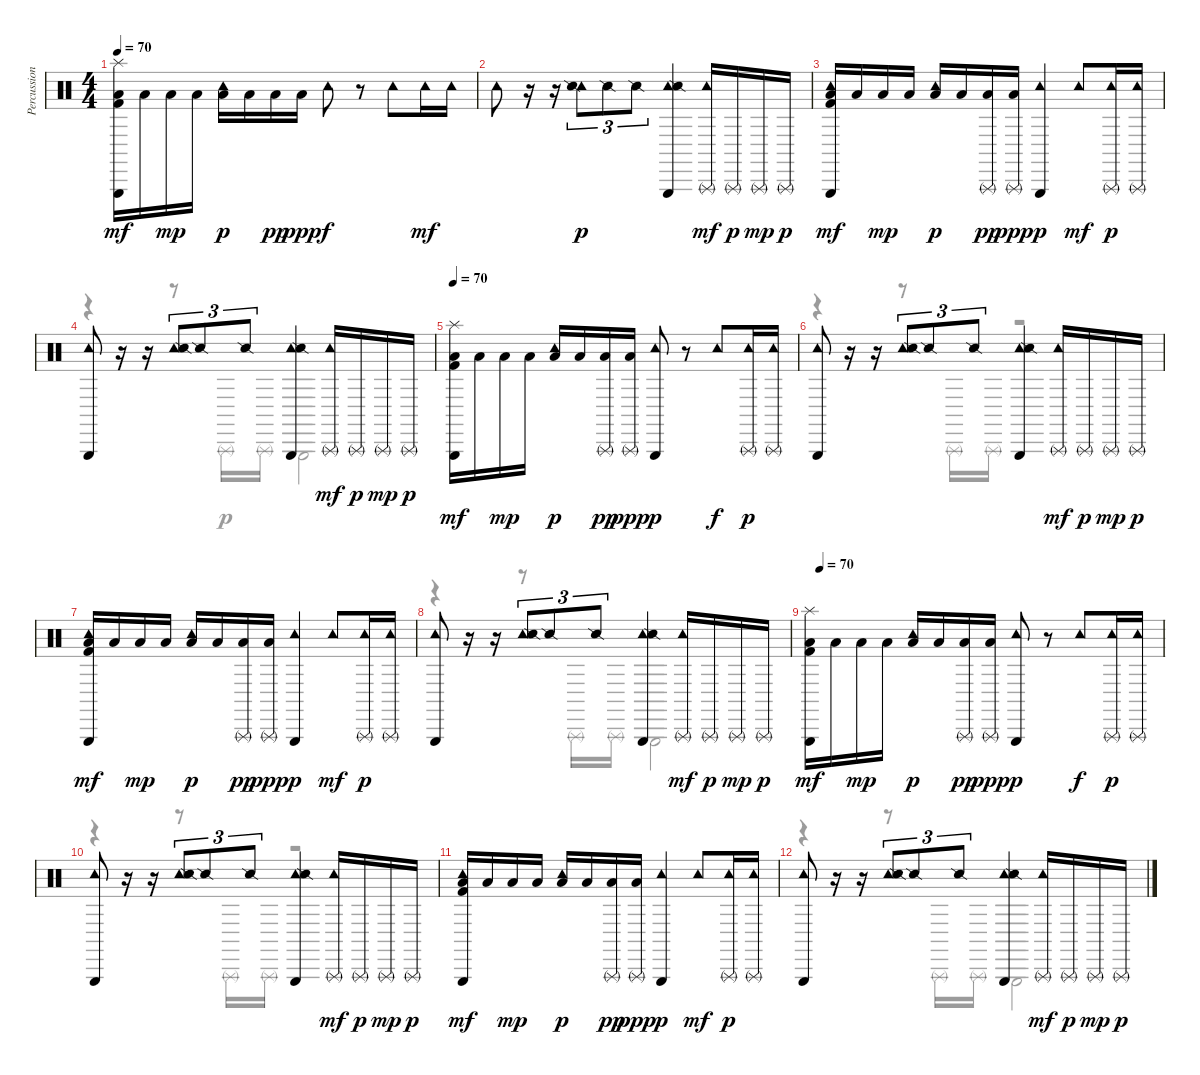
\track ("Percussion" "Percussion") {instrument percussion}
\staff {score}
\articulation defaults
\voice
\ts (4 4)
\tempo 70
\clef neutral
\ks c
("Splash (hit)" "Triangle (hit)" "Low Floor Tom (hit)" "Kick (hit) 2").16{dy mf} "Low Floor Tom (hit)".16 "Low Floor Tom (hit)".16{dy mp} "Low Floor Tom (hit)".16 ("Tambourine (hit)" "Low Floor Tom (hit)").16{dy p} "Low Floor Tom (hit)".16 "Low Floor Tom (hit)".16{dy pp} "Low Floor Tom (hit)".16{dy ppp} "Tambourine (hit)".8{dy f} r.8 "Tambourine (hit)".8 "Tambourine (hit)".16{dy mf} "Tambourine (hit)".16 |
"Tambourine (hit)".8 r.16 r.16 ("Tambourine (hit)" "Snare (side stick) 2").8{tu (3 2) dy p} "Snare (side stick) 2".8{tu (3 2)} "Snare (side stick) 2".8{tu (3 2)} ("Tambourine (hit)" "Triangle (hit)" "Snare (side stick) 2").4 ("Tambourine (hit)" "Triangle (rnute)").16{dy mf} "Triangle (rnute)".16{dy p} "Triangle (rnute)".16{dy mp} "Triangle (rnute)".16{dy p} |
("Tambourine (hit)" "Triangle (hit)" "Low Floor Tom (hit)" "Kick (hit) 2").16{dy mf} "Low Floor Tom (hit)".16 "Low Floor Tom (hit)".16{dy mp} "Low Floor Tom (hit)".16 ("Tambourine (hit)" "Low Floor Tom (hit)").16{dy p} "Low Floor Tom (hit)".16 ("Triangle (rnute)" "Low Floor Tom (hit)").16{dy pp} ("Triangle (rnute)" "Low Floor Tom (hit)").16{dy ppp} ("Tambourine (hit)" "Triangle (hit)").4{dy p} "Tambourine (hit)".8{dy mf} ("Tambourine (hit)" "Triangle (rnute)").16{dy p} ("Tambourine (hit)" "Triangle (rnute)").16 |
("Tambourine (hit)" "Triangle (hit)").8 r.16 r.16 ("Tambourine (hit)" "Snare (side stick) 2").8{tu (3 2)} "Snare (side stick) 2".8{tu (3 2)} "Snare (side stick) 2".8{tu (3 2)} ("Tambourine (hit)" "Triangle (hit)" "Snare (side stick) 2").4 ("Tambourine (hit)" "Triangle (rnute)").16{dy mf} "Triangle (rnute)".16{dy p} "Triangle (rnute)".16{dy mp} "Triangle (rnute)".16{dy p} |
\tempo 70
("Splash (hit)" "Triangle (hit)" "Low Floor Tom (hit)" "Kick (hit) 2").16{dy mf} "Low Floor Tom (hit)".16 "Low Floor Tom (hit)".16{dy mp} "Low Floor Tom (hit)".16 ("Tambourine (hit)" "Low Floor Tom (hit)").16{dy p} "Low Floor Tom (hit)".16 ("Triangle (rnute)" "Low Floor Tom (hit)").16{dy pp} ("Triangle (rnute)" "Low Floor Tom (hit)").16{dy ppp} ("Tambourine (hit)" "Triangle (hit)").8{dy p} r.8 "Tambourine (hit)".8{dy f} ("Tambourine (hit)" "Triangle (rnute)").16{dy p} ("Tambourine (hit)" "Triangle (rnute)").16 |
("Tambourine (hit)" "Triangle (hit)").8 r.16 r.16 ("Tambourine (hit)" "Snare (side stick) 2").8{tu (3 2)} "Snare (side stick) 2".8{tu (3 2)} "Snare (side stick) 2".8{tu (3 2)} ("Tambourine (hit)" "Triangle (hit)" "Snare (side stick) 2").4 ("Tambourine (hit)" "Triangle (rnute)").16{dy mf} "Triangle (rnute)".16{dy p} "Triangle (rnute)".16{dy mp} "Triangle (rnute)".16{dy p} |
("Tambourine (hit)" "Triangle (hit)" "Low Floor Tom (hit)" "Kick (hit) 2").16{dy mf} "Low Floor Tom (hit)".16 "Low Floor Tom (hit)".16{dy mp} "Low Floor Tom (hit)".16 ("Tambourine (hit)" "Low Floor Tom (hit)").16{dy p} "Low Floor Tom (hit)".16 ("Triangle (rnute)" "Low Floor Tom (hit)").16{dy pp} ("Triangle (rnute)" "Low Floor Tom (hit)").16{dy ppp} ("Tambourine (hit)" "Triangle (hit)").4{dy p} "Tambourine (hit)".8{dy mf} ("Tambourine (hit)" "Triangle (rnute)").16{dy p} ("Tambourine (hit)" "Triangle (rnute)").16 |
("Tambourine (hit)" "Triangle (hit)").8 r.16 r.16 ("Tambourine (hit)" "Snare (side stick) 2").8{tu (3 2)} "Snare (side stick) 2".8{tu (3 2)} "Snare (side stick) 2".8{tu (3 2)} ("Tambourine (hit)" "Triangle (hit)" "Snare (side stick) 2").4 ("Tambourine (hit)" "Triangle (rnute)").16{dy mf} "Triangle (rnute)".16{dy p} "Triangle (rnute)".16{dy mp} "Triangle (rnute)".16{dy p} |
\tempo (70 0.03125)
("Splash (hit)" "Triangle (hit)" "Low Floor Tom (hit)" "Kick (hit) 2").16{dy mf} "Low Floor Tom (hit)".16 "Low Floor Tom (hit)".16{dy mp} "Low Floor Tom (hit)".16 ("Tambourine (hit)" "Low Floor Tom (hit)").16{dy p} "Low Floor Tom (hit)".16 ("Triangle (rnute)" "Low Floor Tom (hit)").16{dy pp} ("Triangle (rnute)" "Low Floor Tom (hit)").16{dy ppp} ("Tambourine (hit)" "Triangle (hit)").8{dy p} r.8 "Tambourine (hit)".8{dy f} ("Tambourine (hit)" "Triangle (rnute)").16{dy p} ("Tambourine (hit)" "Triangle (rnute)").16 |
("Tambourine (hit)" "Triangle (hit)").8 r.16 r.16 ("Tambourine (hit)" "Snare (side stick) 2").8{tu (3 2)} "Snare (side stick) 2".8{tu (3 2)} "Snare (side stick) 2".8{tu (3 2)} ("Tambourine (hit)" "Triangle (hit)" "Snare (side stick) 2").4 ("Tambourine (hit)" "Triangle (rnute)").16{dy mf} "Triangle (rnute)".16{dy p} "Triangle (rnute)".16{dy mp} "Triangle (rnute)".16{dy p} |
("Tambourine (hit)" "Triangle (hit)" "Low Floor Tom (hit)" "Kick (hit) 2").16{dy mf} "Low Floor Tom (hit)".16 "Low Floor Tom (hit)".16{dy mp} "Low Floor Tom (hit)".16 ("Tambourine (hit)" "Low Floor Tom (hit)").16{dy p} "Low Floor Tom (hit)".16 ("Triangle (rnute)" "Low Floor Tom (hit)").16{dy pp} ("Triangle (rnute)" "Low Floor Tom (hit)").16{dy ppp} ("Tambourine (hit)" "Triangle (hit)").4{dy p} "Tambourine (hit)".8{dy mf} ("Tambourine (hit)" "Triangle (rnute)").16{dy p} ("Tambourine (hit)" "Triangle (rnute)").16 |
("Tambourine (hit)" "Triangle (hit)").8 r.16 r.16 ("Tambourine (hit)" "Snare (side stick) 2").8{tu (3 2)} "Snare (side stick) 2".8{tu (3 2)} "Snare (side stick) 2".8{tu (3 2)} ("Tambourine (hit)" "Triangle (hit)" "Snare (side stick) 2").4 ("Tambourine (hit)" "Triangle (rnute)").16{dy mf} "Triangle (rnute)".16{dy p} "Triangle (rnute)".16{dy mp} "Triangle (rnute)".16{dy p} |
|
|
|
\voice
\clef neutral
\ottava regular
\simile none
\ks c
|
|
|
r.4 r.8 "Triangle (rnute)".16 "Triangle (rnute)".16 "Triangle (hit)".2 |
|
r.4 r.8 "Triangle (rnute)".16 "Triangle (rnute)".16 r.2 |
|
r.4 r.8 "Triangle (rnute)".16 "Triangle (rnute)".16 "Triangle (hit)".2 |
|
r.4 r.8 "Triangle (rnute)".16 "Triangle (rnute)".16 r.2 |
|
r.4 r.8 "Triangle (rnute)".16 "Triangle (rnute)".16 "Triangle (hit)".2 |
|
|
|
